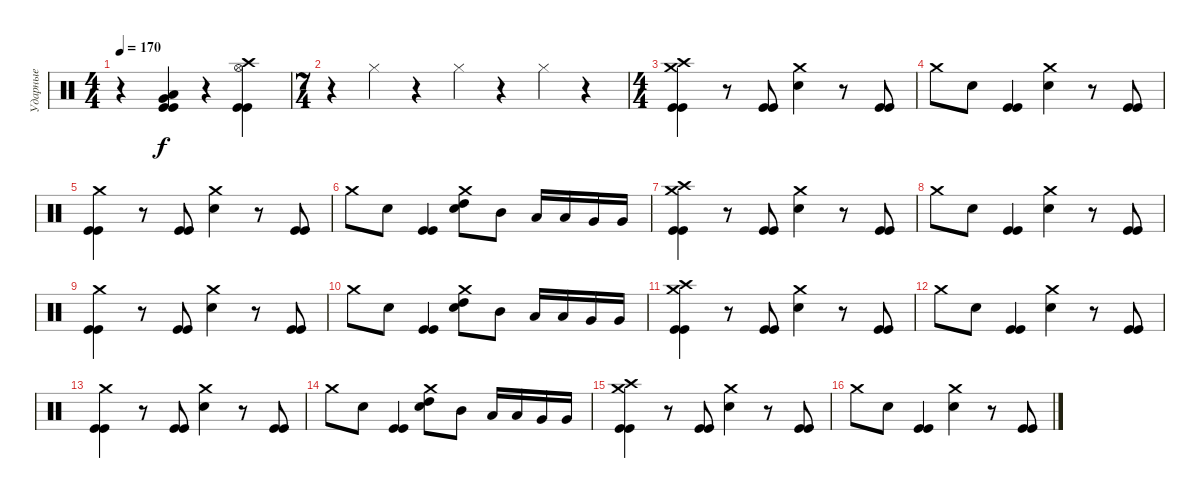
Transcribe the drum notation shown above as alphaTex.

\track ("Ударные" "Ударные") {instrument percussion}
\staff {score}
\articulation defaults
\ts (4 4)
\tempo 170
\clef neutral
\ks c
r.4{dy f} ("Low Tom (hit)" "Very Low Tom (hit)" "Kick (hit)" "Kick (hit)").4 r.4 ("Crash high (hit)" "Hi-Hat (open)" "Kick (hit)" "Kick (hit)").4 |
\ts (7 4)
r.4 "Hi-Hat (closed)".4 r.4 "Hi-Hat (closed)".4 r.4 "Hi-Hat (closed)".4 r.4 |
\ts (4 4)
("Crash high (hit)" "Crash medium (hit)" "Kick (hit)" "Kick (hit)").4 r.8 ("Kick (hit)" "Kick (hit)").8 ("Crash medium (hit)" "Electric Snare (hit)").4 r.8 ("Kick (hit)" "Kick (hit)").8 |
"Crash medium (hit)".8 "Electric Snare (hit)".8 ("Kick (hit)" "Kick (hit)").4 ("Crash medium (hit)" "Electric Snare (hit)").4 r.8 ("Kick (hit)" "Kick (hit)").8 |
("Crash medium (hit)" "Kick (hit)" "Kick (hit)").4 r.8 ("Kick (hit)" "Kick (hit)").8 ("Crash medium (hit)" "Electric Snare (hit)").4 r.8 ("Kick (hit)" "Kick (hit)").8 |
"Crash medium (hit)".8 "Electric Snare (hit)".8 ("Kick (hit)" "Kick (hit)").4 ("Crash medium (hit)" "Electric Snare (hit)" "High Tom (hit)").8 "Mid Tom (hit)".8 "Low Tom (hit)".16 "Low Tom (hit)".16 "Very Low Tom (hit)".16 "Very Low Tom (hit)".16 |
("Crash high (hit)" "Crash medium (hit)" "Kick (hit)" "Kick (hit)").4 r.8 ("Kick (hit)" "Kick (hit)").8 ("Crash medium (hit)" "Electric Snare (hit)").4 r.8 ("Kick (hit)" "Kick (hit)").8 |
"Crash medium (hit)".8 "Electric Snare (hit)".8 ("Kick (hit)" "Kick (hit)").4 ("Crash medium (hit)" "Electric Snare (hit)").4 r.8 ("Kick (hit)" "Kick (hit)").8 |
("Crash medium (hit)" "Kick (hit)" "Kick (hit)").4 r.8 ("Kick (hit)" "Kick (hit)").8 ("Crash medium (hit)" "Electric Snare (hit)").4 r.8 ("Kick (hit)" "Kick (hit)").8 |
"Crash medium (hit)".8 "Electric Snare (hit)".8 ("Kick (hit)" "Kick (hit)").4 ("Crash medium (hit)" "Electric Snare (hit)" "High Tom (hit)").8 "Mid Tom (hit)".8 "Low Tom (hit)".16 "Low Tom (hit)".16 "Very Low Tom (hit)".16 "Very Low Tom (hit)".16 |
("Crash high (hit)" "Crash medium (hit)" "Kick (hit)" "Kick (hit)").4 r.8 ("Kick (hit)" "Kick (hit)").8 ("Crash medium (hit)" "Electric Snare (hit)").4 r.8 ("Kick (hit)" "Kick (hit)").8 |
"Crash medium (hit)".8 "Electric Snare (hit)".8 ("Kick (hit)" "Kick (hit)").4 ("Crash medium (hit)" "Electric Snare (hit)").4 r.8 ("Kick (hit)" "Kick (hit)").8 |
("Crash medium (hit)" "Kick (hit)" "Kick (hit)").4 r.8 ("Kick (hit)" "Kick (hit)").8 ("Crash medium (hit)" "Electric Snare (hit)").4 r.8 ("Kick (hit)" "Kick (hit)").8 |
"Crash medium (hit)".8 "Electric Snare (hit)".8 ("Kick (hit)" "Kick (hit)").4 ("Crash medium (hit)" "Electric Snare (hit)" "High Tom (hit)").8 "Mid Tom (hit)".8 "Low Tom (hit)".16 "Low Tom (hit)".16 "Very Low Tom (hit)".16 "Very Low Tom (hit)".16 |
("Crash high (hit)" "Crash medium (hit)" "Kick (hit)" "Kick (hit)").4 r.8 ("Kick (hit)" "Kick (hit)").8 ("Crash medium (hit)" "Electric Snare (hit)").4 r.8 ("Kick (hit)" "Kick (hit)").8 |
"Crash medium (hit)".8 "Electric Snare (hit)".8 ("Kick (hit)" "Kick (hit)").4 ("Crash medium (hit)" "Electric Snare (hit)").4 r.8 ("Kick (hit)" "Kick (hit)").8
